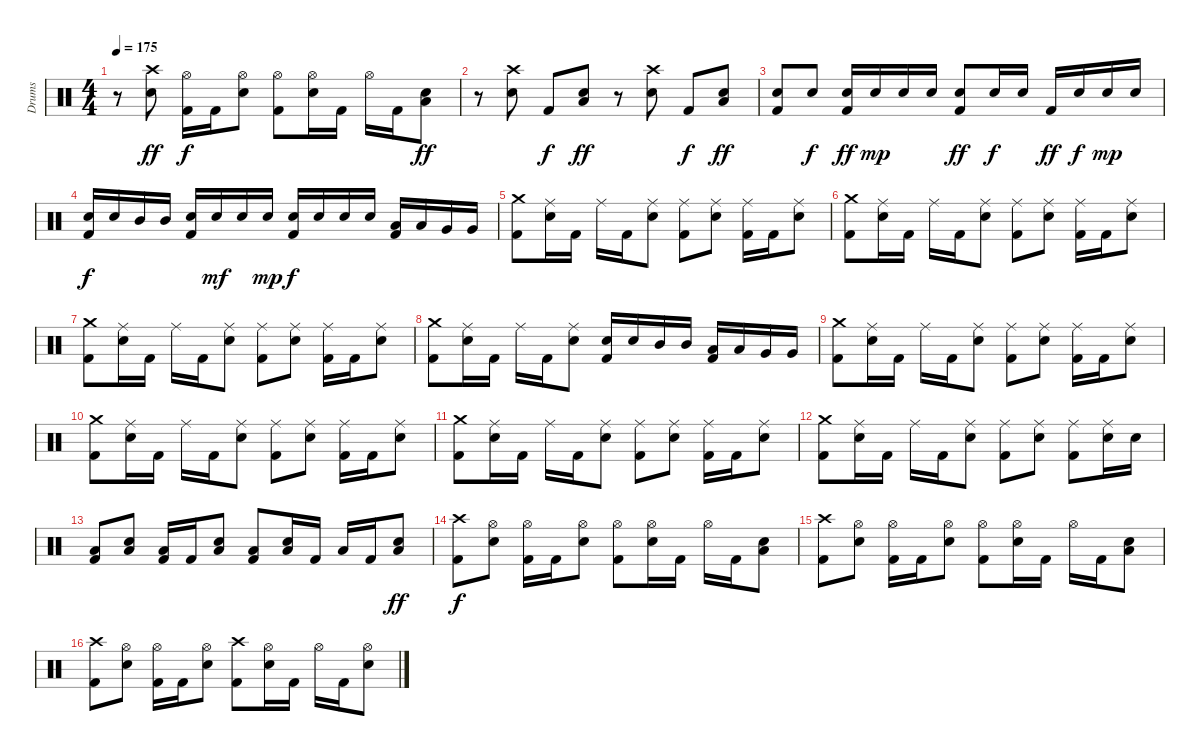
\track ("Drums" "Drums") {instrument percussion}
\staff {score}
\articulation defaults
\ts (4 4)
\tempo 175
\clef neutral
\ks c
r.8{dy ff} ("Crash high (hit)" "Electric Snare (hit)").8 ("Hi-Hat (open)" "Kick (hit) 2").16{dy f} "Kick (hit) 2".16 ("Hi-Hat (open)" "Electric Snare (hit)").8 ("Hi-Hat (open)" "Kick (hit) 2").8 ("Hi-Hat (open)" "Electric Snare (hit)").16 "Kick (hit) 2".16 "Hi-Hat (open)".16 "Kick (hit) 2".16 ("Low Floor Tom (hit)" "Electric Snare (hit)").8{dy ff} |
r.8 ("Crash high (hit)" "Electric Snare (hit)").8 "Kick (hit) 2".8{dy f} ("Low Floor Tom (hit)" "Electric Snare (hit)").8{dy ff} r.8 ("Crash high (hit)" "Electric Snare (hit)").8 "Kick (hit) 2".8{dy f} ("Low Floor Tom (hit)" "Electric Snare (hit)").8{dy ff} |
("Electric Snare (hit)" "Kick (hit) 2").8 "Electric Snare (hit)".8{dy f} ("Electric Snare (hit)" "Kick (hit) 2").16{dy ff} "Electric Snare (hit)".16{dy mp} "Electric Snare (hit)".16 "Electric Snare (hit)".16 ("Electric Snare (hit)" "Kick (hit) 2").8{dy ff} "Electric Snare (hit)".16{dy f} "Electric Snare (hit)".16 "Kick (hit) 2".16{dy ff} "Electric Snare (hit)".16{dy f} "Electric Snare (hit)".16{dy mp} "Electric Snare (hit)".16 |
("Electric Snare (hit)" "Kick (hit) 2").16{dy f} "Electric Snare (hit)".16 "Mid Tom (hit)".16 "Mid Tom (hit)".16 ("Electric Snare (hit)" "Kick (hit) 2").16 "Electric Snare (hit)".16{dy mf} "Electric Snare (hit)".16 "Electric Snare (hit)".16{dy mp} ("Electric Snare (hit)" "Kick (hit) 2").16{dy f} "Electric Snare (hit)".16 "Electric Snare (hit)".16 "Electric Snare (hit)".16 ("Low Tom (hit)" "Kick (hit) 2").16 "Low Tom (hit)".16 "Very Low Tom (hit)".16 "Very Low Tom (hit)".16 |
("Crash medium (hit)" "Kick (hit) 2").8 ("Ride (middle)" "Electric Snare (hit)").16 "Kick (hit) 2".16 "Ride (middle)".16 "Kick (hit) 2".16 ("Ride (middle)" "Electric Snare (hit)").8 ("Ride (middle)" "Kick (hit) 2").8 ("Ride (middle)" "Electric Snare (hit)").8 ("Ride (middle)" "Kick (hit) 2").16 "Kick (hit) 2".16 ("Ride (middle)" "Electric Snare (hit)").8 |
("Crash medium (hit)" "Kick (hit) 2").8 ("Ride (middle)" "Electric Snare (hit)").16 "Kick (hit) 2".16 "Ride (middle)".16 "Kick (hit) 2".16 ("Ride (middle)" "Electric Snare (hit)").8 ("Ride (middle)" "Kick (hit) 2").8 ("Ride (middle)" "Electric Snare (hit)").8 ("Ride (middle)" "Kick (hit) 2").16 "Kick (hit) 2".16 ("Ride (middle)" "Electric Snare (hit)").8 |
("Crash medium (hit)" "Kick (hit) 2").8 ("Ride (middle)" "Electric Snare (hit)").16 "Kick (hit) 2".16 "Ride (middle)".16 "Kick (hit) 2".16 ("Ride (middle)" "Electric Snare (hit)").8 ("Ride (middle)" "Kick (hit) 2").8 ("Ride (middle)" "Electric Snare (hit)").8 ("Ride (middle)" "Kick (hit) 2").16 "Kick (hit) 2".16 ("Ride (middle)" "Electric Snare (hit)").8 |
("Crash medium (hit)" "Kick (hit) 2").8 ("Ride (middle)" "Electric Snare (hit)").16 "Kick (hit) 2".16 "Ride (middle)".16 "Kick (hit) 2".16 ("Ride (middle)" "Electric Snare (hit)").8 ("Electric Snare (hit)" "Kick (hit) 2").16 "Electric Snare (hit)".16 "Mid Tom (hit)".16 "Mid Tom (hit)".16 ("Low Tom (hit)" "Kick (hit) 2").16 "Low Tom (hit)".16 "Very Low Tom (hit)".16 "Very Low Tom (hit)".16 |
("Crash medium (hit)" "Kick (hit) 2").8 ("Ride (middle)" "Electric Snare (hit)").16 "Kick (hit) 2".16 "Ride (middle)".16 "Kick (hit) 2".16 ("Ride (middle)" "Electric Snare (hit)").8 ("Ride (middle)" "Kick (hit) 2").8 ("Ride (middle)" "Electric Snare (hit)").8 ("Ride (middle)" "Kick (hit) 2").16 "Kick (hit) 2".16 ("Ride (middle)" "Electric Snare (hit)").8 |
("Crash medium (hit)" "Kick (hit) 2").8 ("Ride (middle)" "Electric Snare (hit)").16 "Kick (hit) 2".16 "Ride (middle)".16 "Kick (hit) 2".16 ("Ride (middle)" "Electric Snare (hit)").8 ("Ride (middle)" "Kick (hit) 2").8 ("Ride (middle)" "Electric Snare (hit)").8 ("Ride (middle)" "Kick (hit) 2").16 "Kick (hit) 2".16 ("Ride (middle)" "Electric Snare (hit)").8 |
("Crash medium (hit)" "Kick (hit) 2").8 ("Ride (middle)" "Electric Snare (hit)").16 "Kick (hit) 2".16 "Ride (middle)".16 "Kick (hit) 2".16 ("Ride (middle)" "Electric Snare (hit)").8 ("Ride (middle)" "Kick (hit) 2").8 ("Ride (middle)" "Electric Snare (hit)").8 ("Ride (middle)" "Kick (hit) 2").16 "Kick (hit) 2".16 ("Ride (middle)" "Electric Snare (hit)").8 |
("Crash medium (hit)" "Kick (hit) 2").8 ("Ride (middle)" "Electric Snare (hit)").16 "Kick (hit) 2".16 "Ride (middle)".16 "Kick (hit) 2".16 ("Ride (middle)" "Electric Snare (hit)").8 ("Ride (middle)" "Kick (hit) 2").8 ("Ride (middle)" "Electric Snare (hit)").8 ("Ride (middle)" "Kick (hit) 2").8 ("Ride (middle)" "Electric Snare (hit)").16 "Electric Snare (hit)".16 |
("Low Floor Tom (hit)" "Kick (hit) 2").8 ("Low Floor Tom (hit)" "Electric Snare (hit)").8 ("Low Floor Tom (hit)" "Kick (hit) 2").16 "Kick (hit) 2".16 ("Low Floor Tom (hit)" "Electric Snare (hit)").8 ("Low Floor Tom (hit)" "Kick (hit) 2").8 ("Low Floor Tom (hit)" "Electric Snare (hit)").16 "Kick (hit) 2".16 "Low Floor Tom (hit)".16 "Kick (hit) 2".16 ("Low Floor Tom (hit)" "Electric Snare (hit)").8{dy ff} |
("Crash high (hit)" "Kick (hit) 2").8{dy f} ("Hi-Hat (open)" "Electric Snare (hit)").8 ("Hi-Hat (open)" "Kick (hit) 2").16 "Kick (hit) 2".16 ("Hi-Hat (open)" "Electric Snare (hit)").8 ("Hi-Hat (open)" "Kick (hit) 2").8 ("Hi-Hat (open)" "Electric Snare (hit)").16 "Kick (hit) 2".16 "Hi-Hat (open)".16 "Kick (hit) 2".16 ("Low Floor Tom (hit)" "Electric Snare (hit)").8 |
("Crash high (hit)" "Kick (hit) 2").8 ("Hi-Hat (open)" "Electric Snare (hit)").8 ("Hi-Hat (open)" "Kick (hit) 2").16 "Kick (hit) 2".16 ("Hi-Hat (open)" "Electric Snare (hit)").8 ("Hi-Hat (open)" "Kick (hit) 2").8 ("Hi-Hat (open)" "Electric Snare (hit)").16 "Kick (hit) 2".16 "Hi-Hat (open)".16 "Kick (hit) 2".16 ("Low Floor Tom (hit)" "Electric Snare (hit)").8 |
("Crash high (hit)" "Kick (hit) 2").8 ("Hi-Hat (open)" "Electric Snare (hit)").8 ("Hi-Hat (open)" "Kick (hit) 2").16 "Kick (hit) 2".16 ("Hi-Hat (open)" "Electric Snare (hit)").8 ("Crash high (hit)" "Kick (hit) 2").8 ("Hi-Hat (open)" "Electric Snare (hit)").16 "Kick (hit) 2".16 "Hi-Hat (open)".16 "Kick (hit) 2".16 ("Hi-Hat (open)" "Electric Snare (hit)").8
